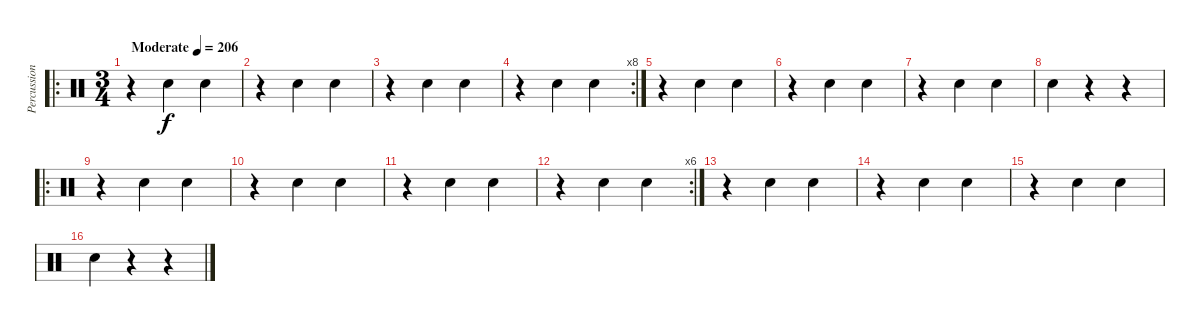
\track ("Percussion" "Percussion") {instrument percussion}
\staff {score}
\articulation defaults
\ro
\ts (3 4)
\tempo (206 "Moderate")
\clef neutral
\ks c
r.4{dy f} "Electric Snare (hit)".4 "Electric Snare (hit)".4 |
r.4 "Electric Snare (hit)".4 "Electric Snare (hit)".4 |
r.4 "Electric Snare (hit)".4 "Electric Snare (hit)".4 |
\rc 8
r.4 "Electric Snare (hit)".4 "Electric Snare (hit)".4 |
r.4 "Electric Snare (hit)".4 "Electric Snare (hit)".4 |
r.4 "Electric Snare (hit)".4 "Electric Snare (hit)".4 |
r.4 "Electric Snare (hit)".4 "Electric Snare (hit)".4 |
"Electric Snare (hit)".4 r.4 r.4 |
\ro
r.4 "Electric Snare (hit)".4 "Electric Snare (hit)".4 |
r.4 "Electric Snare (hit)".4 "Electric Snare (hit)".4 |
r.4 "Electric Snare (hit)".4 "Electric Snare (hit)".4 |
\rc 6
r.4 "Electric Snare (hit)".4 "Electric Snare (hit)".4 |
r.4 "Electric Snare (hit)".4 "Electric Snare (hit)".4 |
r.4 "Electric Snare (hit)".4 "Electric Snare (hit)".4 |
r.4 "Electric Snare (hit)".4 "Electric Snare (hit)".4 |
"Electric Snare (hit)".4 r.4 r.4
